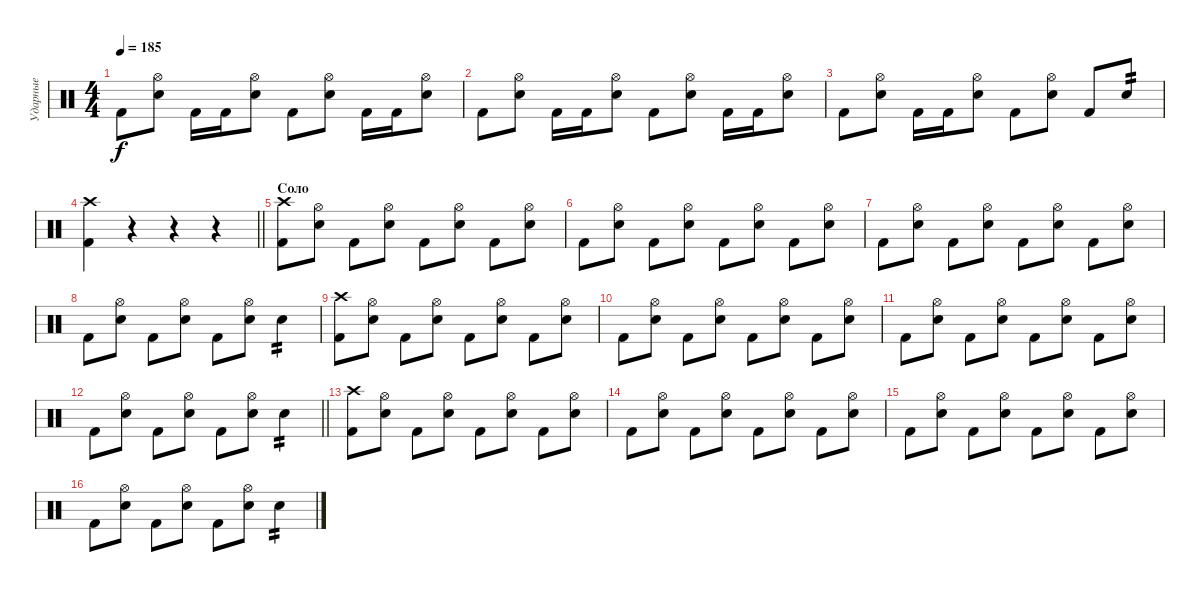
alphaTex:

\track ("Ударные" "Ударные") {instrument percussion}
\staff {score}
\articulation defaults
\ts (4 4)
\tempo 185
\clef neutral
\ks c "Kick (hit) 2".8{dy f}
("Hi-Hat (open)" "Electric Snare (hit)").8 "Kick (hit) 2".16 "Kick (hit) 2".16 ("Hi-Hat (open)" "Electric Snare (hit)").8 "Kick (hit) 2".8 ("Hi-Hat (open)" "Electric Snare (hit)").8 "Kick (hit) 2".16 "Kick (hit) 2".16 ("Hi-Hat (open)" "Electric Snare (hit)").8 |
"Kick (hit) 2".8 ("Hi-Hat (open)" "Electric Snare (hit)").8 "Kick (hit) 2".16 "Kick (hit) 2".16 ("Hi-Hat (open)" "Electric Snare (hit)").8 "Kick (hit) 2".8 ("Hi-Hat (open)" "Electric Snare (hit)").8 "Kick (hit) 2".16 "Kick (hit) 2".16 ("Hi-Hat (open)" "Electric Snare (hit)").8 |
"Kick (hit) 2".8 ("Hi-Hat (open)" "Electric Snare (hit)").8 "Kick (hit) 2".16 "Kick (hit) 2".16 ("Hi-Hat (open)" "Electric Snare (hit)").8 "Kick (hit) 2".8 ("Hi-Hat (open)" "Electric Snare (hit)").8 "Kick (hit) 2".8 "Electric Snare (hit)".8{tp 2} |
\barLineRight lightlight
("Crash high (hit)" "Kick (hit) 2").4 r.4 r.4 r.4 |
\section ("" "Соло")
("Crash high (hit)" "Kick (hit) 2").8 ("Hi-Hat (open)" "Electric Snare (hit)").8 "Kick (hit) 2".8 ("Hi-Hat (open)" "Electric Snare (hit)").8 "Kick (hit) 2".8 ("Hi-Hat (open)" "Electric Snare (hit)").8 "Kick (hit) 2".8 ("Hi-Hat (open)" "Electric Snare (hit)").8 |
"Kick (hit) 2".8 ("Hi-Hat (open)" "Electric Snare (hit)").8 "Kick (hit) 2".8 ("Hi-Hat (open)" "Electric Snare (hit)").8 "Kick (hit) 2".8 ("Hi-Hat (open)" "Electric Snare (hit)").8 "Kick (hit) 2".8 ("Hi-Hat (open)" "Electric Snare (hit)").8 |
"Kick (hit) 2".8 ("Hi-Hat (open)" "Electric Snare (hit)").8 "Kick (hit) 2".8 ("Hi-Hat (open)" "Electric Snare (hit)").8 "Kick (hit) 2".8 ("Hi-Hat (open)" "Electric Snare (hit)").8 "Kick (hit) 2".8 ("Hi-Hat (open)" "Electric Snare (hit)").8 |
"Kick (hit) 2".8 ("Hi-Hat (open)" "Electric Snare (hit)").8 "Kick (hit) 2".8 ("Hi-Hat (open)" "Electric Snare (hit)").8 "Kick (hit) 2".8 ("Hi-Hat (open)" "Electric Snare (hit)").8 "Electric Snare (hit)".4{tp 2} |
("Crash high (hit)" "Kick (hit) 2").8 ("Hi-Hat (open)" "Electric Snare (hit)").8 "Kick (hit) 2".8 ("Hi-Hat (open)" "Electric Snare (hit)").8 "Kick (hit) 2".8 ("Hi-Hat (open)" "Electric Snare (hit)").8 "Kick (hit) 2".8 ("Hi-Hat (open)" "Electric Snare (hit)").8 |
"Kick (hit) 2".8 ("Hi-Hat (open)" "Electric Snare (hit)").8 "Kick (hit) 2".8 ("Hi-Hat (open)" "Electric Snare (hit)").8 "Kick (hit) 2".8 ("Hi-Hat (open)" "Electric Snare (hit)").8 "Kick (hit) 2".8 ("Hi-Hat (open)" "Electric Snare (hit)").8 |
"Kick (hit) 2".8 ("Hi-Hat (open)" "Electric Snare (hit)").8 "Kick (hit) 2".8 ("Hi-Hat (open)" "Electric Snare (hit)").8 "Kick (hit) 2".8 ("Hi-Hat (open)" "Electric Snare (hit)").8 "Kick (hit) 2".8 ("Hi-Hat (open)" "Electric Snare (hit)").8 |
\barLineRight lightlight "Kick (hit) 2".8
("Hi-Hat (open)" "Electric Snare (hit)").8 "Kick (hit) 2".8 ("Hi-Hat (open)" "Electric Snare (hit)").8 "Kick (hit) 2".8 ("Hi-Hat (open)" "Electric Snare (hit)").8 "Electric Snare (hit)".4{tp 2} |
("Crash high (hit)" "Kick (hit) 2").8 ("Hi-Hat (open)" "Electric Snare (hit)").8 "Kick (hit) 2".8 ("Hi-Hat (open)" "Electric Snare (hit)").8 "Kick (hit) 2".8 ("Hi-Hat (open)" "Electric Snare (hit)").8 "Kick (hit) 2".8 ("Hi-Hat (open)" "Electric Snare (hit)").8 |
"Kick (hit) 2".8 ("Hi-Hat (open)" "Electric Snare (hit)").8 "Kick (hit) 2".8 ("Hi-Hat (open)" "Electric Snare (hit)").8 "Kick (hit) 2".8 ("Hi-Hat (open)" "Electric Snare (hit)").8 "Kick (hit) 2".8 ("Hi-Hat (open)" "Electric Snare (hit)").8 |
"Kick (hit) 2".8 ("Hi-Hat (open)" "Electric Snare (hit)").8 "Kick (hit) 2".8 ("Hi-Hat (open)" "Electric Snare (hit)").8 "Kick (hit) 2".8 ("Hi-Hat (open)" "Electric Snare (hit)").8 "Kick (hit) 2".8 ("Hi-Hat (open)" "Electric Snare (hit)").8 |
"Kick (hit) 2".8 ("Hi-Hat (open)" "Electric Snare (hit)").8 "Kick (hit) 2".8 ("Hi-Hat (open)" "Electric Snare (hit)").8 "Kick (hit) 2".8 ("Hi-Hat (open)" "Electric Snare (hit)").8 "Electric Snare (hit)".4{tp 2}
